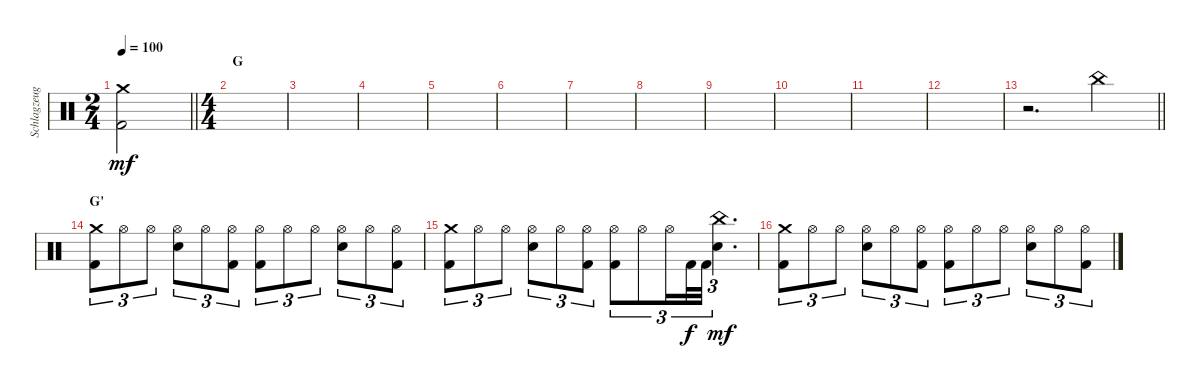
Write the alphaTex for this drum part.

\track ("Schlagzeug" "Schlagzeug") {instrument percussion}
\staff {score}
\articulation defaults
\ts (2 4)
\tempo 100
\clef neutral
\barLineRight lightlight
\ks c
("Crash medium (hit)" "Kick (hit) 2").2{dy mf} |
\ts (4 4)
\section ("" "G")
|
|
|
|
|
|
|
|
|
|
|
\barLineRight lightlight
r.2{d} "China (hit)".4 |
\section ("" "G'")
("Crash medium (hit)" "Kick (hit) 2").8{tu (3 2)} "Hi-Hat (open)".8{tu (3 2)} "Hi-Hat (open)".8{tu (3 2)} ("Hi-Hat (open)" "Electric Snare (hit)").8{tu (3 2)} "Hi-Hat (open)".8{tu (3 2)} ("Hi-Hat (open)" "Kick (hit) 2").8{tu (3 2)} ("Hi-Hat (open)" "Kick (hit) 2").8{tu (3 2)} "Hi-Hat (open)".8{tu (3 2)} "Hi-Hat (open)".8{tu (3 2)} ("Hi-Hat (open)" "Electric Snare (hit)").8{tu (3 2)} "Hi-Hat (open)".8{tu (3 2)} ("Hi-Hat (open)" "Kick (hit) 2").8{tu (3 2)} |
("Crash medium (hit)" "Kick (hit) 2").8{tu (3 2)} "Hi-Hat (open)".8{tu (3 2)} "Hi-Hat (open)".8{tu (3 2)} ("Hi-Hat (open)" "Electric Snare (hit)").8{tu (3 2)} "Hi-Hat (open)".8{tu (3 2)} ("Hi-Hat (open)" "Kick (hit) 2").8{tu (3 2)} ("Hi-Hat (open)" "Kick (hit) 2").8{tu (3 2)} "Hi-Hat (open)".8{tu (3 2)} "Hi-Hat (open)".16{tu (3 2)} "Kick (hit) 2".32{tu (3 2) dy f} "Kick (hit) 2".32{tu (3 2)} ("China (hit)" "Electric Snare (hit)").4{d tu (3 2) dy mf} |
("Crash medium (hit)" "Kick (hit) 2").8{tu (3 2)} "Hi-Hat (open)".8{tu (3 2)} "Hi-Hat (open)".8{tu (3 2)} ("Hi-Hat (open)" "Electric Snare (hit)").8{tu (3 2)} "Hi-Hat (open)".8{tu (3 2)} ("Hi-Hat (open)" "Kick (hit) 2").8{tu (3 2)} ("Hi-Hat (open)" "Kick (hit) 2").8{tu (3 2)} "Hi-Hat (open)".8{tu (3 2)} "Hi-Hat (open)".8{tu (3 2)} ("Hi-Hat (open)" "Electric Snare (hit)").8{tu (3 2)} "Hi-Hat (open)".8{tu (3 2)} ("Hi-Hat (open)" "Kick (hit) 2").8{tu (3 2)}
